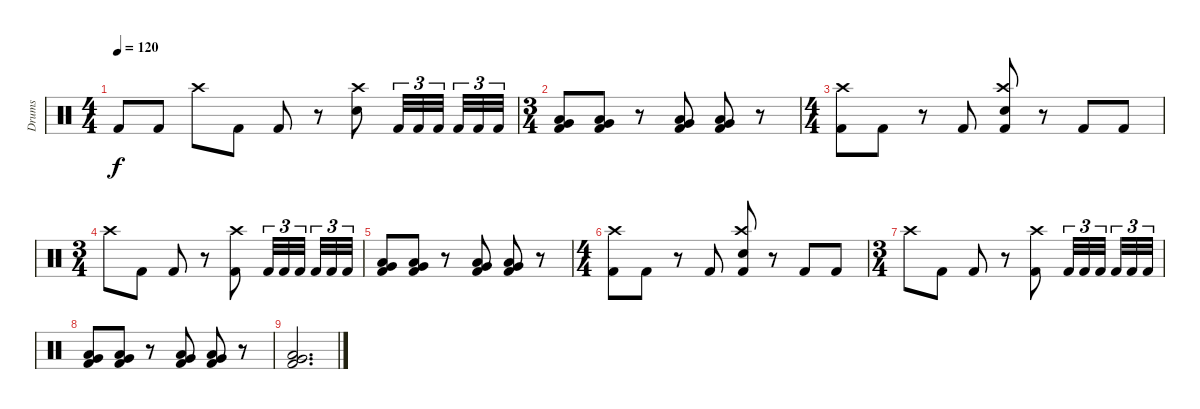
\track ("Drums" "Drums") {instrument percussion}
\staff {score}
\articulation defaults
\ts (4 4)
\tempo 120
\clef neutral
\ks c "Kick (hit) 2".8{dy f} "Kick (hit) 2".8 "Crash high (hit)".8 "Kick (hit) 2".8 "Kick (hit) 2".8
r.8 ("Crash high (hit)" "Electric Snare (hit)").8 "Kick (hit) 2".32{tu (3 2)} "Kick (hit) 2".32{tu (3 2)} "Kick (hit) 2".32{tu (3 2) beam splitsecondary} "Kick (hit) 2".32{tu (3 2)} "Kick (hit) 2".32{tu (3 2)} "Kick (hit) 2".32{tu (3 2)} |
\ts (3 4)
("Very Low Tom (hit)" "Low Floor Tom (hit)" "Kick (hit) 2").8 ("Very Low Tom (hit)" "Low Floor Tom (hit)" "Kick (hit) 2").8 r.8 ("Very Low Tom (hit)" "Low Floor Tom (hit)" "Kick (hit) 2").8 ("Very Low Tom (hit)" "Low Floor Tom (hit)" "Kick (hit) 2").8 r.8 |
\ts (4 4)
("Crash high (hit)" "Kick (hit) 2").8 "Kick (hit) 2".8 r.8 "Kick (hit) 2".8 ("Crash high (hit)" "Electric Snare (hit)" "Kick (hit) 2").8 r.8 "Kick (hit) 2".8 "Kick (hit) 2".8 |
\ts (3 4)
"Crash high (hit)".8 "Kick (hit) 2".8 "Kick (hit) 2".8 r.8 ("Crash high (hit)" "Kick (hit) 2").8 "Kick (hit) 2".32{tu (3 2)} "Kick (hit) 2".32{tu (3 2)} "Kick (hit) 2".32{tu (3 2) beam splitsecondary} "Kick (hit) 2".32{tu (3 2)} "Kick (hit) 2".32{tu (3 2)} "Kick (hit) 2".32{tu (3 2)} |
("Very Low Tom (hit)" "Low Floor Tom (hit)" "Kick (hit) 2").8 ("Very Low Tom (hit)" "Low Floor Tom (hit)" "Kick (hit) 2").8 r.8 ("Very Low Tom (hit)" "Low Floor Tom (hit)" "Kick (hit) 2").8 ("Very Low Tom (hit)" "Low Floor Tom (hit)" "Kick (hit) 2").8 r.8 |
\ts (4 4)
("Crash high (hit)" "Kick (hit) 2").8 "Kick (hit) 2".8 r.8 "Kick (hit) 2".8 ("Crash high (hit)" "Electric Snare (hit)" "Kick (hit) 2").8 r.8 "Kick (hit) 2".8 "Kick (hit) 2".8 |
\ts (3 4)
"Crash high (hit)".8 "Kick (hit) 2".8 "Kick (hit) 2".8 r.8 ("Crash high (hit)" "Kick (hit) 2").8 "Kick (hit) 2".32{tu (3 2)} "Kick (hit) 2".32{tu (3 2)} "Kick (hit) 2".32{tu (3 2) beam splitsecondary} "Kick (hit) 2".32{tu (3 2)} "Kick (hit) 2".32{tu (3 2)} "Kick (hit) 2".32{tu (3 2)} |
("Very Low Tom (hit)" "Low Floor Tom (hit)" "Kick (hit) 2").8 ("Very Low Tom (hit)" "Low Floor Tom (hit)" "Kick (hit) 2").8 r.8 ("Very Low Tom (hit)" "Low Floor Tom (hit)" "Kick (hit) 2").8 ("Very Low Tom (hit)" "Low Floor Tom (hit)" "Kick (hit) 2").8 r.8 |
("Very Low Tom (hit)" "Low Floor Tom (hit)" "Kick (hit) 2").2{d}
